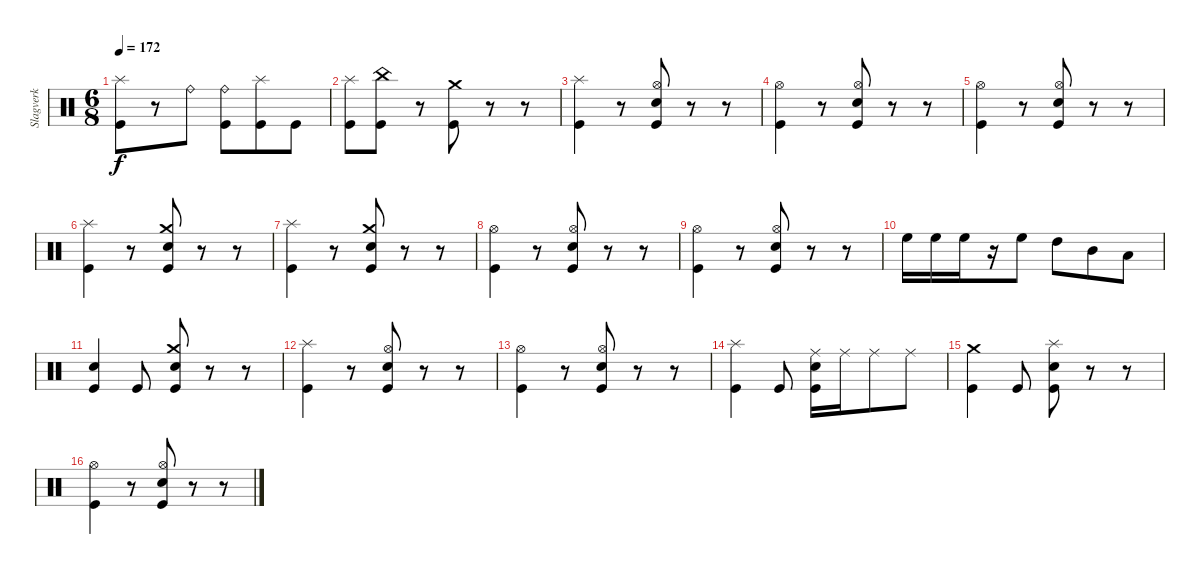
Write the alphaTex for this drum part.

\track ("Slagverk" "Slagverk") {instrument percussion}
\staff {score}
\articulation defaults
\ts (6 8)
\tempo 172
\clef neutral
\ks c
("Splash (hit)" "Kick (hit)").8{dy f} r.8 "Ride (bell)".8 ("Ride (bell)" "Kick (hit)").8 ("Splash (hit)" "Kick (hit)").8 "Kick (hit)".8 |
("Splash (hit)" "Kick (hit)").8 ("China (hit)" "Kick (hit)").8 r.8 ("Crash medium (hit)" "Kick (hit)").8 r.8 r.8 |
("Splash (hit)" "Kick (hit)").4 r.8 ("Hi-Hat (open)" "Snare (hit) 2" "Kick (hit)").8 r.8 r.8 |
("Hi-Hat (open)" "Kick (hit)").4 r.8 ("Hi-Hat (open)" "Snare (hit) 2" "Kick (hit)").8 r.8 r.8 |
("Hi-Hat (open)" "Kick (hit)").4 r.8 ("Hi-Hat (open)" "Snare (hit) 2" "Kick (hit)").8 r.8 r.8 |
("Splash (hit)" "Kick (hit)").4 r.8 ("Crash medium (hit)" "Snare (hit) 2" "Kick (hit)").8 r.8 r.8 |
("Splash (hit)" "Kick (hit)").4 r.8 ("Crash medium (hit)" "Snare (hit) 2" "Kick (hit)").8 r.8 r.8 |
("Hi-Hat (open)" "Kick (hit)").4 r.8 ("Hi-Hat (open)" "Snare (hit) 2" "Kick (hit)").8 r.8 r.8 |
("Hi-Hat (open)" "Kick (hit)").4 r.8 ("Hi-Hat (open)" "Snare (hit) 2" "Kick (hit)").8 r.8 r.8 |
"High Floor Tom (hit)".16 "High Floor Tom (hit)".16 "High Floor Tom (hit)".16 r.16 "High Floor Tom (hit)".8 "High Tom (hit)".8 "Mid Tom (hit)".8 "Low Tom (hit)".8 |
("Snare (hit) 2" "Kick (hit)").4 "Kick (hit)".8 ("Crash medium (hit)" "Snare (hit) 2" "Kick (hit)").8 r.8 r.8 |
("Splash (hit)" "Kick (hit)").4 r.8 ("Hi-Hat (open)" "Snare (hit) 2" "Kick (hit)").8 r.8 r.8 |
("Hi-Hat (open)" "Kick (hit)").4 r.8 ("Hi-Hat (open)" "Snare (hit) 2" "Kick (hit)").8 r.8 r.8 |
("Splash (hit)" "Kick (hit)").4 "Kick (hit)".8 ("Ride (middle)" "Snare (hit) 2" "Kick (hit)").16 "Ride (middle)".16 "Ride (middle)".8 "Ride (middle)".8 |
("Crash medium (hit)" "Kick (hit)").4 "Kick (hit)".8 ("Splash (hit)" "Snare (hit) 2" "Kick (hit)").8 r.8 r.8 |
("Hi-Hat (open)" "Kick (hit)").4 r.8 ("Hi-Hat (open)" "Snare (hit) 2" "Kick (hit)").8 r.8 r.8
